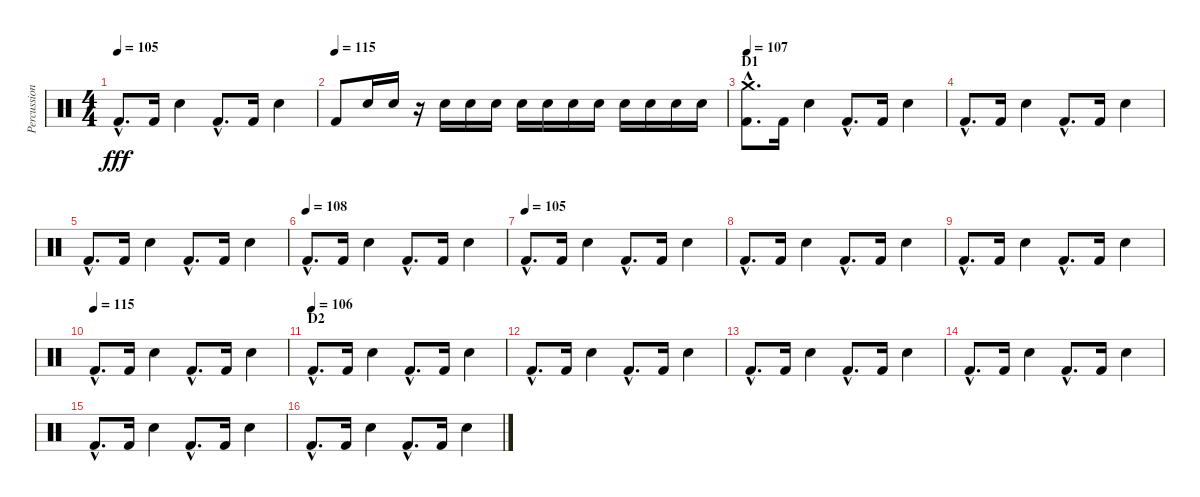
\track ("Percussion" "Percussion") {instrument percussion}
\staff {score}
\articulation defaults
\ts (4 4)
\tempo 105
\clef neutral
\ks c "Kick (hit) 2"{hac}.8{d dy fff} "Kick (hit) 2".16 "Electric Snare (hit)".4 "Kick (hit) 2"{hac}.8{d} "Kick (hit) 2".16 "Electric Snare (hit)".4
|
\tempo (115)
"Kick (hit) 2".8 "Electric Snare (hit)".16 "Electric Snare (hit)".16 r.16 "Electric Snare (hit)".16 "Electric Snare (hit)".16 "Electric Snare (hit)".16 "Electric Snare (hit)".16 "Electric Snare (hit)".16 "Electric Snare (hit)".16 "Electric Snare (hit)".16 "Electric Snare (hit)".16 "Electric Snare (hit)".16 "Electric Snare (hit)".16 "Electric Snare (hit)".16 |
\section ("" "D1")
\tempo 107
("Kick (hit) 2"{hac} "Crash medium (hit)"{hac}).8{d} "Kick (hit) 2".16 "Electric Snare (hit)".4 "Kick (hit) 2"{hac}.8{d} "Kick (hit) 2".16 "Electric Snare (hit)".4 |
"Kick (hit) 2"{hac}.8{d} "Kick (hit) 2".16 "Electric Snare (hit)".4 "Kick (hit) 2"{hac}.8{d} "Kick (hit) 2".16 "Electric Snare (hit)".4 |
"Kick (hit) 2"{hac}.8{d} "Kick (hit) 2".16 "Electric Snare (hit)".4 "Kick (hit) 2"{hac}.8{d} "Kick (hit) 2".16 "Electric Snare (hit)".4 |
\tempo (108)
"Kick (hit) 2"{hac}.8{d} "Kick (hit) 2".16 "Electric Snare (hit)".4 "Kick (hit) 2"{hac}.8{d} "Kick (hit) 2".16 "Electric Snare (hit)".4 |
\tempo (105)
"Kick (hit) 2"{hac}.8{d} "Kick (hit) 2".16 "Electric Snare (hit)".4 "Kick (hit) 2"{hac}.8{d} "Kick (hit) 2".16 "Electric Snare (hit)".4 |
"Kick (hit) 2"{hac}.8{d} "Kick (hit) 2".16 "Electric Snare (hit)".4 "Kick (hit) 2"{hac}.8{d} "Kick (hit) 2".16 "Electric Snare (hit)".4 |
"Kick (hit) 2"{hac}.8{d} "Kick (hit) 2".16 "Electric Snare (hit)".4 "Kick (hit) 2"{hac}.8{d} "Kick (hit) 2".16 "Electric Snare (hit)".4 |
\tempo (115)
"Kick (hit) 2"{hac}.8{d} "Kick (hit) 2".16 "Electric Snare (hit)".4 "Kick (hit) 2"{hac}.8{d} "Kick (hit) 2".16 "Electric Snare (hit)".4 |
\section ("" "D2")
\tempo (106)
"Kick (hit) 2"{hac}.8{d} "Kick (hit) 2".16 "Electric Snare (hit)".4 "Kick (hit) 2"{hac}.8{d} "Kick (hit) 2".16 "Electric Snare (hit)".4 |
"Kick (hit) 2"{hac}.8{d} "Kick (hit) 2".16 "Electric Snare (hit)".4 "Kick (hit) 2"{hac}.8{d} "Kick (hit) 2".16 "Electric Snare (hit)".4 |
"Kick (hit) 2"{hac}.8{d} "Kick (hit) 2".16 "Electric Snare (hit)".4 "Kick (hit) 2"{hac}.8{d} "Kick (hit) 2".16 "Electric Snare (hit)".4 |
"Kick (hit) 2"{hac}.8{d} "Kick (hit) 2".16 "Electric Snare (hit)".4 "Kick (hit) 2"{hac}.8{d} "Kick (hit) 2".16 "Electric Snare (hit)".4 |
"Kick (hit) 2"{hac}.8{d} "Kick (hit) 2".16 "Electric Snare (hit)".4 "Kick (hit) 2"{hac}.8{d} "Kick (hit) 2".16 "Electric Snare (hit)".4 |
"Kick (hit) 2"{hac}.8{d} "Kick (hit) 2".16 "Electric Snare (hit)".4 "Kick (hit) 2"{hac}.8{d} "Kick (hit) 2".16 "Electric Snare (hit)".4
